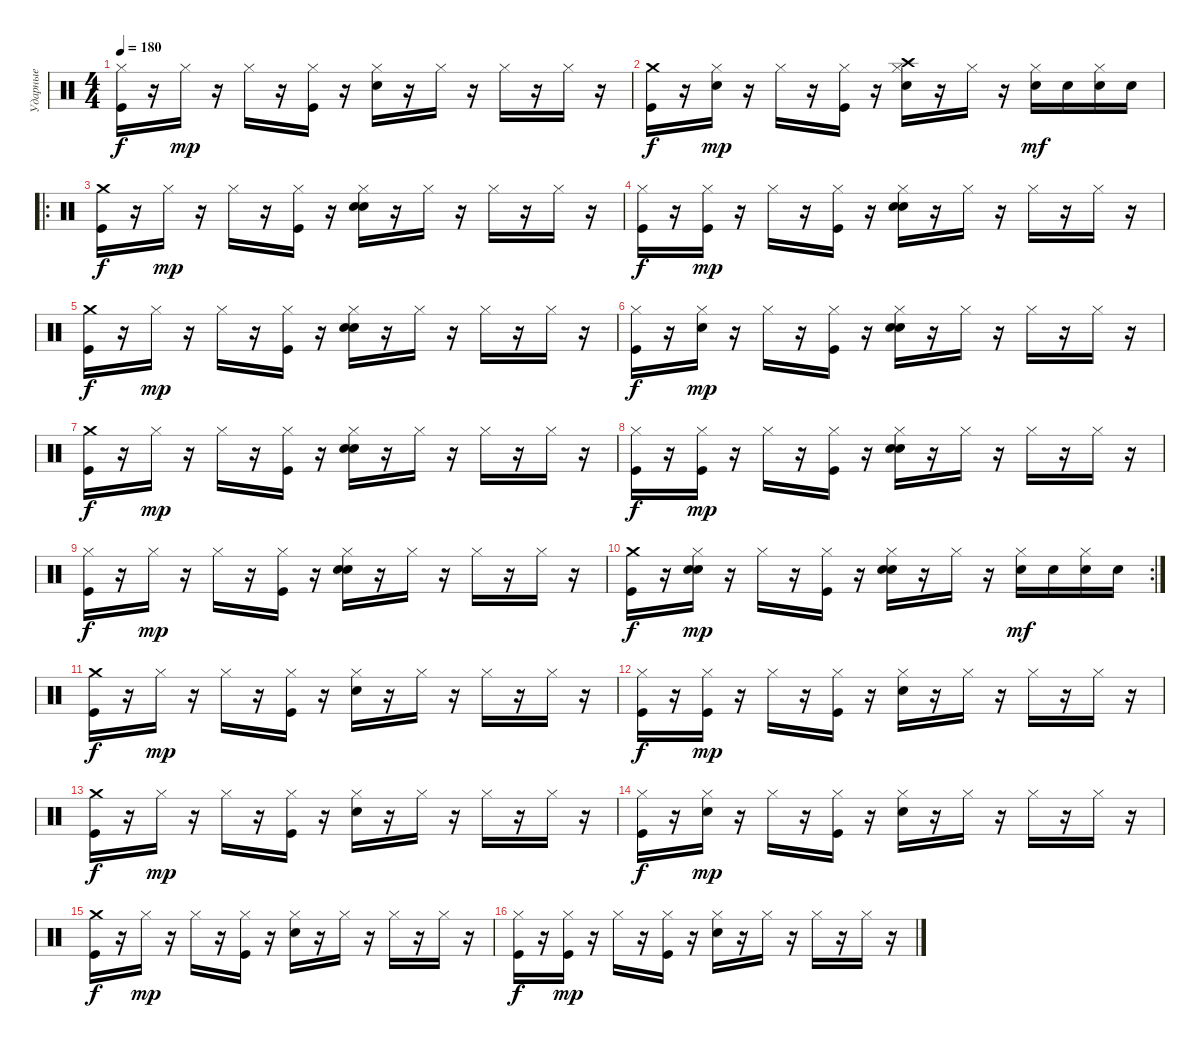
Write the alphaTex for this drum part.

\track ("Ударные" "Ударные") {instrument percussion}
\staff {score}
\articulation defaults
\ts (4 4)
\tempo 180
\clef neutral
\ks c
("Hi-Hat (closed)" "Kick (hit)").16{dy f} r.16 "Hi-Hat (closed)".16{dy mp} r.16 "Hi-Hat (closed)".16 r.16 ("Hi-Hat (closed)" "Kick (hit)").16 r.16 ("Hi-Hat (closed)" "Electric Snare (hit)").16 r.16 "Hi-Hat (closed)".16 r.16 "Hi-Hat (closed)".16 r.16 "Hi-Hat (closed)".16 r.16 |
("Crash medium (hit)" "Kick (hit)").16{dy f} r.16 ("Hi-Hat (closed)" "Electric Snare (hit)").16{dy mp} r.16 "Hi-Hat (closed)".16 r.16 ("Hi-Hat (closed)" "Kick (hit)").16 r.16 ("Hi-Hat (closed)" "Crash high (hit)" "Electric Snare (hit)").16 r.16 "Hi-Hat (closed)".16 r.16 ("Hi-Hat (closed)" "Electric Snare (hit)").16{dy mf} "Electric Snare (hit)".16 ("Hi-Hat (closed)" "Electric Snare (hit)").16 "Electric Snare (hit)".16 |
\ro
("Crash medium (hit)" "Kick (hit)").16{dy f} r.16 "Hi-Hat (closed)".16{dy mp} r.16 "Hi-Hat (closed)".16 r.16 ("Hi-Hat (closed)" "Kick (hit)").16 r.16 ("Hi-Hat (closed)" "Electric Snare (hit)" "Hand Clap (hit)").16 r.16 "Hi-Hat (closed)".16 r.16 "Hi-Hat (closed)".16 r.16 "Hi-Hat (closed)".16 r.16 |
("Hi-Hat (closed)" "Kick (hit)").16{dy f} r.16 ("Hi-Hat (closed)" "Kick (hit)").16{dy mp} r.16 "Hi-Hat (closed)".16 r.16 ("Hi-Hat (closed)" "Kick (hit)").16 r.16 ("Hi-Hat (closed)" "Electric Snare (hit)" "Hand Clap (hit)").16 r.16 "Hi-Hat (closed)".16 r.16 "Hi-Hat (closed)".16 r.16 "Hi-Hat (closed)".16 r.16 |
("Crash medium (hit)" "Kick (hit)").16{dy f} r.16 "Hi-Hat (closed)".16{dy mp} r.16 "Hi-Hat (closed)".16 r.16 ("Hi-Hat (closed)" "Kick (hit)").16 r.16 ("Hi-Hat (closed)" "Electric Snare (hit)" "Hand Clap (hit)").16 r.16 "Hi-Hat (closed)".16 r.16 "Hi-Hat (closed)".16 r.16 "Hi-Hat (closed)".16 r.16 |
("Hi-Hat (closed)" "Kick (hit)").16{dy f} r.16 ("Hi-Hat (closed)" "Electric Snare (hit)").16{dy mp} r.16 "Hi-Hat (closed)".16 r.16 ("Hi-Hat (closed)" "Kick (hit)").16 r.16 ("Hi-Hat (closed)" "Electric Snare (hit)" "Hand Clap (hit)").16 r.16 "Hi-Hat (closed)".16 r.16 "Hi-Hat (closed)".16 r.16 "Hi-Hat (closed)".16 r.16 |
("Crash medium (hit)" "Kick (hit)").16{dy f} r.16 "Hi-Hat (closed)".16{dy mp} r.16 "Hi-Hat (closed)".16 r.16 ("Hi-Hat (closed)" "Kick (hit)").16 r.16 ("Hi-Hat (closed)" "Electric Snare (hit)" "Hand Clap (hit)").16 r.16 "Hi-Hat (closed)".16 r.16 "Hi-Hat (closed)".16 r.16 "Hi-Hat (closed)".16 r.16 |
("Hi-Hat (closed)" "Kick (hit)").16{dy f} r.16 ("Hi-Hat (closed)" "Kick (hit)").16{dy mp} r.16 "Hi-Hat (closed)".16 r.16 ("Hi-Hat (closed)" "Kick (hit)").16 r.16 ("Hi-Hat (closed)" "Electric Snare (hit)" "Hand Clap (hit)").16 r.16 "Hi-Hat (closed)".16 r.16 "Hi-Hat (closed)".16 r.16 "Hi-Hat (closed)".16 r.16 |
("Hi-Hat (closed)" "Kick (hit)").16{dy f} r.16 "Hi-Hat (closed)".16{dy mp} r.16 "Hi-Hat (closed)".16 r.16 ("Hi-Hat (closed)" "Kick (hit)").16 r.16 ("Hi-Hat (closed)" "Electric Snare (hit)" "Hand Clap (hit)").16 r.16 "Hi-Hat (closed)".16 r.16 "Hi-Hat (closed)".16 r.16 "Hi-Hat (closed)".16 r.16 |
\rc 2
("Crash medium (hit)" "Kick (hit)").16{dy f} r.16 ("Hi-Hat (closed)" "Electric Snare (hit)" "Hand Clap (hit)").16{dy mp} r.16 "Hi-Hat (closed)".16 r.16 ("Hi-Hat (closed)" "Kick (hit)").16 r.16 ("Hi-Hat (closed)" "Electric Snare (hit)" "Hand Clap (hit)").16 r.16 "Hi-Hat (closed)".16 r.16 ("Hi-Hat (closed)" "Electric Snare (hit)").16{dy mf} "Electric Snare (hit)".16 ("Hi-Hat (closed)" "Electric Snare (hit)").16 "Electric Snare (hit)".16 |
("Crash medium (hit)" "Kick (hit)").16{dy f volume 11 balance 0} r.16 "Hi-Hat (closed)".16{dy mp} r.16 "Hi-Hat (closed)".16 r.16 ("Hi-Hat (closed)" "Kick (hit)").16 r.16 ("Hi-Hat (closed)" "Electric Snare (hit)").16 r.16 "Hi-Hat (closed)".16 r.16 "Hi-Hat (closed)".16 r.16 "Hi-Hat (closed)".16 r.16 |
("Hi-Hat (closed)" "Kick (hit)").16{dy f balance 16} r.16 ("Hi-Hat (closed)" "Kick (hit)").16{dy mp} r.16 "Hi-Hat (closed)".16 r.16 ("Hi-Hat (closed)" "Kick (hit)").16 r.16 ("Hi-Hat (closed)" "Electric Snare (hit)").16 r.16 "Hi-Hat (closed)".16 r.16 "Hi-Hat (closed)".16 r.16 "Hi-Hat (closed)".16 r.16 |
("Crash medium (hit)" "Kick (hit)").16{dy f balance 0} r.16 "Hi-Hat (closed)".16{dy mp} r.16 "Hi-Hat (closed)".16 r.16 ("Hi-Hat (closed)" "Kick (hit)").16 r.16 ("Hi-Hat (closed)" "Electric Snare (hit)").16 r.16 "Hi-Hat (closed)".16 r.16 "Hi-Hat (closed)".16 r.16 "Hi-Hat (closed)".16 r.16 |
("Hi-Hat (closed)" "Kick (hit)").16{dy f balance 16} r.16 ("Hi-Hat (closed)" "Electric Snare (hit)").16{dy mp} r.16 "Hi-Hat (closed)".16 r.16 ("Hi-Hat (closed)" "Kick (hit)").16 r.16 ("Hi-Hat (closed)" "Electric Snare (hit)").16 r.16 "Hi-Hat (closed)".16 r.16 "Hi-Hat (closed)".16 r.16 "Hi-Hat (closed)".16 r.16 |
("Crash medium (hit)" "Kick (hit)").16{dy f balance 0} r.16 "Hi-Hat (closed)".16{dy mp} r.16 "Hi-Hat (closed)".16 r.16 ("Hi-Hat (closed)" "Kick (hit)").16 r.16 ("Hi-Hat (closed)" "Electric Snare (hit)").16 r.16 "Hi-Hat (closed)".16 r.16 "Hi-Hat (closed)".16 r.16 "Hi-Hat (closed)".16 r.16 |
("Hi-Hat (closed)" "Kick (hit)").16{dy f balance 16} r.16 ("Hi-Hat (closed)" "Kick (hit)").16{dy mp} r.16 "Hi-Hat (closed)".16 r.16 ("Hi-Hat (closed)" "Kick (hit)").16 r.16 ("Hi-Hat (closed)" "Electric Snare (hit)").16 r.16 "Hi-Hat (closed)".16 r.16 "Hi-Hat (closed)".16 r.16 "Hi-Hat (closed)".16 r.16
